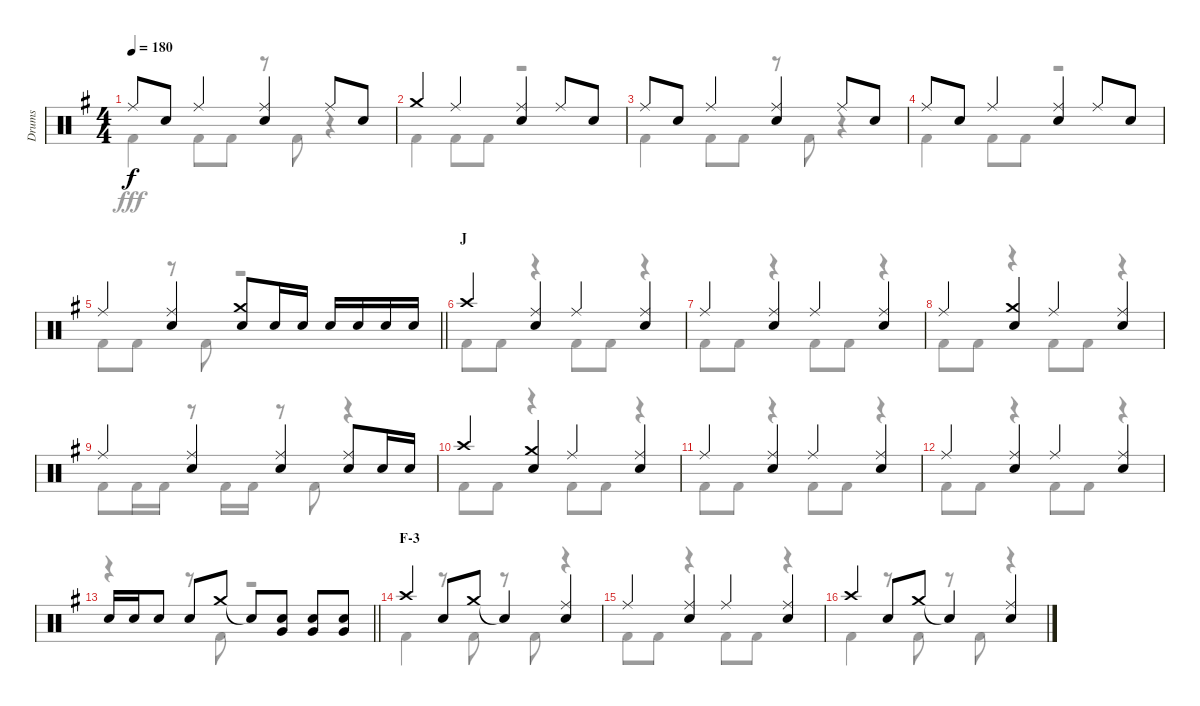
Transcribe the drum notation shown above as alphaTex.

\track ("Drums" "Drums") {instrument percussion}
\staff {score}
\articulation defaults
\voice
\ts (4 4)
\tempo 180
\clef neutral
\ks g "Ride (middle)".8{dy f} "Snare (hit) 2".8 "Ride (middle)".4
("Ride (middle)" "Snare (hit) 2").4 "Ride (middle)".8 "Snare (hit) 2".8 |
"Crash medium (hit)".4 "Ride (middle)".4 ("Ride (middle)" "Snare (hit) 2").4 "Ride (middle)".8 "Snare (hit) 2".8 |
"Ride (middle)".8 "Snare (hit) 2".8 "Ride (middle)".4 ("Ride (middle)" "Snare (hit) 2").4 "Ride (middle)".8 "Snare (hit) 2".8 |
"Ride (middle)".8 "Snare (hit) 2".8 "Ride (middle)".4 ("Ride (middle)" "Snare (hit) 2").4 "Ride (middle)".8 "Snare (hit) 2".8 |
\barLineRight lightlight "Ride (middle)".4
("Ride (middle)" "Snare (hit) 2").4 ("Crash medium (hit)" "Snare (hit) 2").8 "Snare (hit) 2".16 "Snare (hit) 2".16 "Snare (hit) 2".16 "Snare (hit) 2".16 "Snare (hit) 2".16 "Snare (hit) 2".16 |
\section ("" "J")
"Crash high (hit)".4 ("Ride (middle)" "Snare (hit) 2").4 "Ride (middle)".4 ("Ride (middle)" "Snare (hit) 2").4 |
"Ride (middle)".4 ("Ride (middle)" "Snare (hit) 2").4 "Ride (middle)".4 ("Ride (middle)" "Snare (hit) 2").4 |
"Ride (middle)".4 ("Crash medium (hit)" "Snare (hit) 2").4 "Ride (middle)".4 ("Ride (middle)" "Snare (hit) 2").4 |
"Ride (middle)".4 ("Ride (middle)" "Snare (hit) 2").4 ("Ride (middle)" "Snare (hit) 2").4 ("Ride (middle)" "Snare (hit) 2").8 "Snare (hit) 2".16 "Snare (hit) 2".16 |
"Crash high (hit)".4 ("Crash medium (hit)" "Snare (hit) 2").4 "Ride (middle)".4 ("Ride (middle)" "Snare (hit) 2").4 |
"Ride (middle)".4 ("Ride (middle)" "Snare (hit) 2").4 "Ride (middle)".4 ("Ride (middle)" "Snare (hit) 2").4 |
"Ride (middle)".4 ("Ride (middle)" "Snare (hit) 2").4 "Ride (middle)".4 ("Ride (middle)" "Snare (hit) 2").4 |
\barLineRight lightlight "Snare (hit) 2".16 "Snare (hit) 2".16 "Snare (hit) 2".8 "Snare (hit) 2".8 "Crash medium (hit)".8 "Snare (hit)"{t}.8
("Snare (hit) 2" "Very Low Tom (hit)").8 ("Snare (hit) 2" "Very Low Tom (hit)").8 ("Snare (hit) 2" "Very Low Tom (hit)").8 |
\section ("" "F-3")
"Crash high (hit)".4 "Snare (hit) 2".8 "Crash medium (hit)".8 "Snare (hit)"{t}.4 ("Ride (middle)" "Snare (hit) 2").4 |
"Ride (middle)".4 ("Ride (middle)" "Snare (hit) 2").4 "Ride (middle)".4 ("Ride (middle)" "Snare (hit) 2").4 |
"Crash high (hit)".4 "Snare (hit) 2".8 "Crash medium (hit)".8 "Snare (hit)"{t}.4 ("Ride (middle)" "Snare (hit) 2").4
\voice
\clef neutral
\ottava regular
\simile none
\ks g "Kick (hit) 2".4{dy fff} "Kick (hit) 2".8 "Kick (hit) 2".8
r.8 "Kick (hit) 2".8 r.4 |
"Kick (hit) 2".4 "Kick (hit) 2".8 "Kick (hit) 2".8 r.2 |
"Kick (hit) 2".4 "Kick (hit) 2".8 "Kick (hit) 2".8 r.8 "Kick (hit) 2".8 r.4 |
"Kick (hit) 2".4 "Kick (hit) 2".8 "Kick (hit) 2".8 r.2 |
\barLineRight lightlight "Kick (hit) 2".8 "Kick (hit) 2".8
r.8 "Kick (hit) 2".8 r.2 |
"Kick (hit) 2".8 "Kick (hit) 2".8 r.4 "Kick (hit) 2".8 "Kick (hit) 2".8 r.4 |
"Kick (hit) 2".8 "Kick (hit) 2".8 r.4 "Kick (hit) 2".8 "Kick (hit) 2".8 r.4 |
"Kick (hit) 2".8 "Kick (hit) 2".8 r.4 "Kick (hit) 2".8 "Kick (hit) 2".8 r.4 |
"Kick (hit) 2".8 "Kick (hit) 2".16 "Kick (hit) 2".16 r.8 "Kick (hit) 2".16 "Kick (hit) 2".16 r.8 "Kick (hit) 2".8 r.4 |
"Kick (hit) 2".8 "Kick (hit) 2".8 r.4 "Kick (hit) 2".8 "Kick (hit) 2".8 r.4 |
"Kick (hit) 2".8 "Kick (hit) 2".8 r.4 "Kick (hit) 2".8 "Kick (hit) 2".8 r.4 |
"Kick (hit) 2".8 "Kick (hit) 2".8 r.4 "Kick (hit) 2".8 "Kick (hit) 2".8 r.4 |
\barLineRight lightlight
r.4 r.8 "Kick (hit) 2".8 r.2 |
"Kick (hit) 2".4 r.8 "Kick (hit) 2".8 r.8 "Kick (hit) 2".8 r.4 |
"Kick (hit) 2".8 "Kick (hit) 2".8 r.4 "Kick (hit) 2".8 "Kick (hit) 2".8 r.4 |
"Kick (hit) 2".4 r.8 "Kick (hit) 2".8 r.8 "Kick (hit) 2".8 r.4
